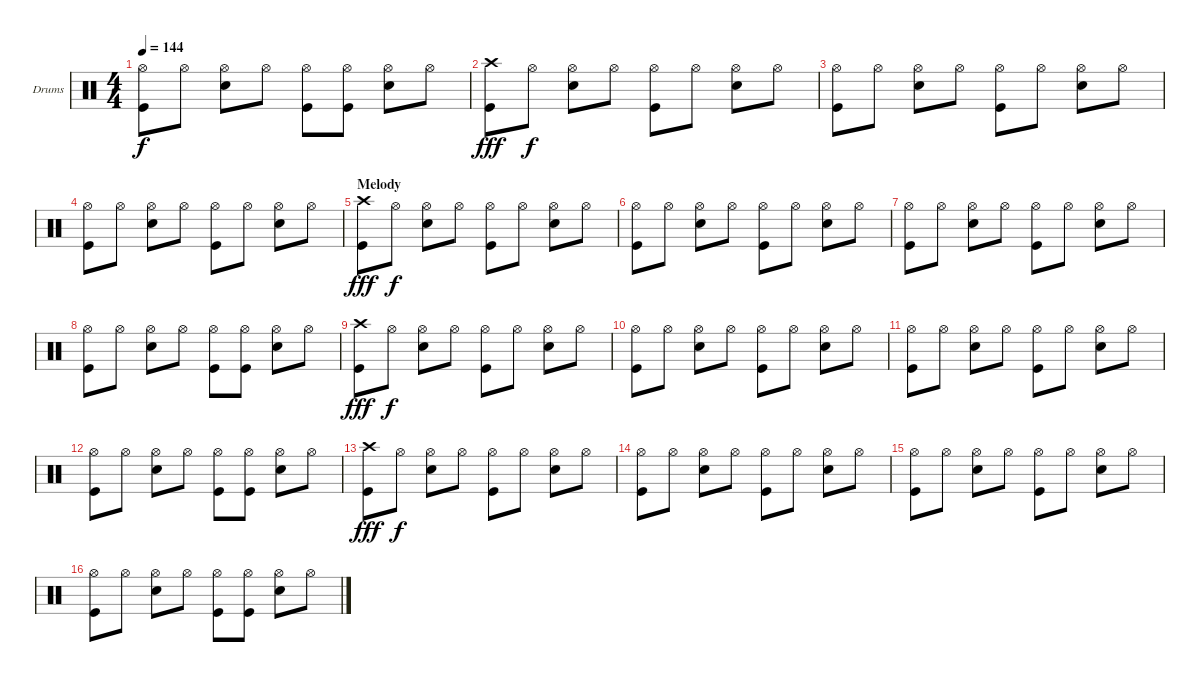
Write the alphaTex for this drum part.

\bracketExtendMode groupsimilarinstruments
\firstSystemTrackNameOrientation horizontal
\otherSystemsTrackNameOrientation horizontal
\track ("Drums" "Drums") {instrument percussion}
\staff {score}
\articulation defaults
\ts (4 4)
\tempo 144
\clef neutral
\ks c
("Hi-Hat (open)" "Kick (hit)").8{dy f} "Hi-Hat (open)".8 ("Hi-Hat (open)" "Snare (hit) 2").8 "Hi-Hat (open)".8 ("Hi-Hat (open)" "Kick (hit)").8 ("Hi-Hat (open)" "Kick (hit)").8 ("Hi-Hat (open)" "Snare (hit) 2").8 "Hi-Hat (open)".8 |
("Crash high (hit)" "Kick (hit)").8{dy fff} "Hi-Hat (open)".8{dy f} ("Hi-Hat (open)" "Snare (hit) 2").8 "Hi-Hat (open)".8 ("Hi-Hat (open)" "Kick (hit)").8 "Hi-Hat (open)".8 ("Hi-Hat (open)" "Snare (hit) 2").8 "Hi-Hat (open)".8 |
("Hi-Hat (open)" "Kick (hit)").8 "Hi-Hat (open)".8 ("Hi-Hat (open)" "Snare (hit) 2").8 "Hi-Hat (open)".8 ("Hi-Hat (open)" "Kick (hit)").8 "Hi-Hat (open)".8 ("Hi-Hat (open)" "Snare (hit) 2").8 "Hi-Hat (open)".8 |
("Hi-Hat (open)" "Kick (hit)").8 "Hi-Hat (open)".8 ("Hi-Hat (open)" "Snare (hit) 2").8 "Hi-Hat (open)".8 ("Hi-Hat (open)" "Kick (hit)").8 "Hi-Hat (open)".8 ("Hi-Hat (open)" "Snare (hit) 2").8 "Hi-Hat (open)".8 |
\section ("" "Melody")
("Crash high (hit)" "Kick (hit)").8{dy fff} "Hi-Hat (open)".8{dy f} ("Hi-Hat (open)" "Snare (hit) 2").8 "Hi-Hat (open)".8 ("Hi-Hat (open)" "Kick (hit)").8 "Hi-Hat (open)".8 ("Hi-Hat (open)" "Snare (hit) 2").8 "Hi-Hat (open)".8 |
("Hi-Hat (open)" "Kick (hit)").8 "Hi-Hat (open)".8 ("Hi-Hat (open)" "Snare (hit) 2").8 "Hi-Hat (open)".8 ("Hi-Hat (open)" "Kick (hit)").8 "Hi-Hat (open)".8 ("Hi-Hat (open)" "Snare (hit) 2").8 "Hi-Hat (open)".8 |
("Hi-Hat (open)" "Kick (hit)").8 "Hi-Hat (open)".8 ("Hi-Hat (open)" "Snare (hit) 2").8 "Hi-Hat (open)".8 ("Hi-Hat (open)" "Kick (hit)").8 "Hi-Hat (open)".8 ("Hi-Hat (open)" "Snare (hit) 2").8 "Hi-Hat (open)".8 |
("Hi-Hat (open)" "Kick (hit)").8 "Hi-Hat (open)".8 ("Hi-Hat (open)" "Snare (hit) 2").8 "Hi-Hat (open)".8 ("Hi-Hat (open)" "Kick (hit)").8 ("Hi-Hat (open)" "Kick (hit)").8 ("Hi-Hat (open)" "Snare (hit) 2").8 "Hi-Hat (open)".8 |
("Crash high (hit)" "Kick (hit)").8{dy fff} "Hi-Hat (open)".8{dy f} ("Hi-Hat (open)" "Snare (hit) 2").8 "Hi-Hat (open)".8 ("Hi-Hat (open)" "Kick (hit)").8 "Hi-Hat (open)".8 ("Hi-Hat (open)" "Snare (hit) 2").8 "Hi-Hat (open)".8 |
("Hi-Hat (open)" "Kick (hit)").8 "Hi-Hat (open)".8 ("Hi-Hat (open)" "Snare (hit) 2").8 "Hi-Hat (open)".8 ("Hi-Hat (open)" "Kick (hit)").8 "Hi-Hat (open)".8 ("Hi-Hat (open)" "Snare (hit) 2").8 "Hi-Hat (open)".8 |
("Hi-Hat (open)" "Kick (hit)").8 "Hi-Hat (open)".8 ("Hi-Hat (open)" "Snare (hit) 2").8 "Hi-Hat (open)".8 ("Hi-Hat (open)" "Kick (hit)").8 "Hi-Hat (open)".8 ("Hi-Hat (open)" "Snare (hit) 2").8 "Hi-Hat (open)".8 |
("Hi-Hat (open)" "Kick (hit)").8 "Hi-Hat (open)".8 ("Hi-Hat (open)" "Snare (hit) 2").8 "Hi-Hat (open)".8 ("Hi-Hat (open)" "Kick (hit)").8 ("Hi-Hat (open)" "Kick (hit)").8 ("Hi-Hat (open)" "Snare (hit) 2").8 "Hi-Hat (open)".8 |
("Crash high (hit)" "Kick (hit)").8{dy fff} "Hi-Hat (open)".8{dy f} ("Hi-Hat (open)" "Snare (hit) 2").8 "Hi-Hat (open)".8 ("Hi-Hat (open)" "Kick (hit)").8 "Hi-Hat (open)".8 ("Hi-Hat (open)" "Snare (hit) 2").8 "Hi-Hat (open)".8 |
("Hi-Hat (open)" "Kick (hit)").8 "Hi-Hat (open)".8 ("Hi-Hat (open)" "Snare (hit) 2").8 "Hi-Hat (open)".8 ("Hi-Hat (open)" "Kick (hit)").8 "Hi-Hat (open)".8 ("Hi-Hat (open)" "Snare (hit) 2").8 "Hi-Hat (open)".8 |
("Hi-Hat (open)" "Kick (hit)").8 "Hi-Hat (open)".8 ("Hi-Hat (open)" "Snare (hit) 2").8 "Hi-Hat (open)".8 ("Hi-Hat (open)" "Kick (hit)").8 "Hi-Hat (open)".8 ("Hi-Hat (open)" "Snare (hit) 2").8 "Hi-Hat (open)".8 |
("Hi-Hat (open)" "Kick (hit)").8 "Hi-Hat (open)".8 ("Hi-Hat (open)" "Snare (hit) 2").8 "Hi-Hat (open)".8 ("Hi-Hat (open)" "Kick (hit)").8 ("Hi-Hat (open)" "Kick (hit)").8 ("Hi-Hat (open)" "Snare (hit) 2").8 "Hi-Hat (open)".8
